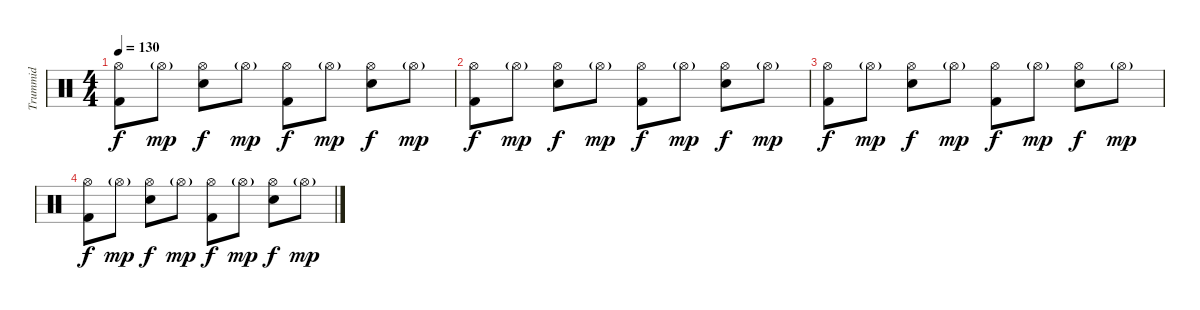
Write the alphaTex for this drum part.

\track ("Trummid" "Trummid") {instrument percussion}
\staff {score}
\articulation defaults
\ts (4 4)
\tempo 130
\clef neutral
\ks c
("Hi-Hat (open)" "Kick (hit) 2").8{dy f} "Hi-Hat (open)"{g}.8{dy mp} ("Hi-Hat (open)" "Snare (hit) 2").8{dy f} "Hi-Hat (open)"{g}.8{dy mp} ("Hi-Hat (open)" "Kick (hit) 2").8{dy f} "Hi-Hat (open)"{g}.8{dy mp} ("Hi-Hat (open)" "Snare (hit) 2").8{dy f} "Hi-Hat (open)"{g}.8{dy mp} |
("Hi-Hat (open)" "Kick (hit) 2").8{dy f} "Hi-Hat (open)"{g}.8{dy mp} ("Hi-Hat (open)" "Snare (hit) 2").8{dy f} "Hi-Hat (open)"{g}.8{dy mp} ("Hi-Hat (open)" "Kick (hit) 2").8{dy f} "Hi-Hat (open)"{g}.8{dy mp} ("Hi-Hat (open)" "Snare (hit) 2").8{dy f} "Hi-Hat (open)"{g}.8{dy mp} |
("Hi-Hat (open)" "Kick (hit) 2").8{dy f} "Hi-Hat (open)"{g}.8{dy mp} ("Hi-Hat (open)" "Snare (hit) 2").8{dy f} "Hi-Hat (open)"{g}.8{dy mp} ("Hi-Hat (open)" "Kick (hit) 2").8{dy f} "Hi-Hat (open)"{g}.8{dy mp} ("Hi-Hat (open)" "Snare (hit) 2").8{dy f} "Hi-Hat (open)"{g}.8{dy mp} |
("Hi-Hat (open)" "Kick (hit) 2").8{dy f} "Hi-Hat (open)"{g}.8{dy mp} ("Hi-Hat (open)" "Snare (hit) 2").8{dy f} "Hi-Hat (open)"{g}.8{dy mp} ("Hi-Hat (open)" "Kick (hit) 2").8{dy f} "Hi-Hat (open)"{g}.8{dy mp} ("Hi-Hat (open)" "Snare (hit) 2").8{dy f} "Hi-Hat (open)"{g}.8{dy mp}
